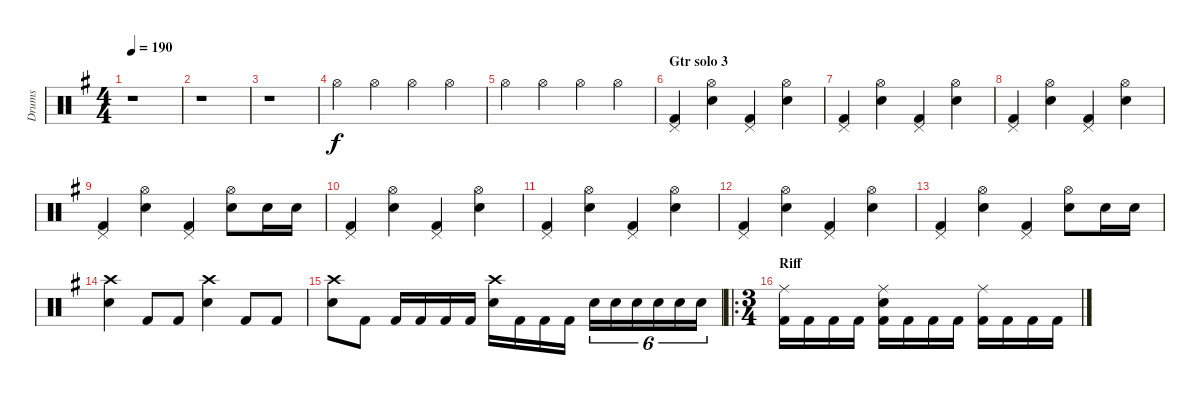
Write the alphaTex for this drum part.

\track ("Drums" "Drums") {instrument percussion}
\staff {score}
\articulation defaults
\ts (4 4)
\tempo 190
\clef neutral
\ks eminor
r.1{dy f} |
r.1 |
r.1 |
"Hi-Hat (open)".4{volume 13} "Hi-Hat (open)".4 "Hi-Hat (open)".4 "Hi-Hat (open)".4 |
"Hi-Hat (open)".4 "Hi-Hat (open)".4 "Hi-Hat (open)".4 "Hi-Hat (open)".4 |
\section ("" "Gtr solo 3")
("Pedal Hi-Hat (hit)" "Kick (hit) 2").4 ("Hi-Hat (open)" "Electric Snare (hit)").4 ("Pedal Hi-Hat (hit)" "Kick (hit) 2").4 ("Hi-Hat (open)" "Electric Snare (hit)").4 |
("Pedal Hi-Hat (hit)" "Kick (hit) 2").4 ("Hi-Hat (open)" "Electric Snare (hit)").4 ("Pedal Hi-Hat (hit)" "Kick (hit) 2").4 ("Hi-Hat (open)" "Electric Snare (hit)").4 |
("Pedal Hi-Hat (hit)" "Kick (hit) 2").4 ("Hi-Hat (open)" "Electric Snare (hit)").4 ("Pedal Hi-Hat (hit)" "Kick (hit) 2").4 ("Hi-Hat (open)" "Electric Snare (hit)").4 |
("Pedal Hi-Hat (hit)" "Kick (hit) 2").4 ("Hi-Hat (open)" "Electric Snare (hit)").4 ("Pedal Hi-Hat (hit)" "Kick (hit) 2").4 ("Hi-Hat (open)" "Electric Snare (hit)").8 "Electric Snare (hit)".16 "Electric Snare (hit)".16 |
("Pedal Hi-Hat (hit)" "Kick (hit) 2").4 ("Hi-Hat (open)" "Electric Snare (hit)").4 ("Pedal Hi-Hat (hit)" "Kick (hit) 2").4 ("Hi-Hat (open)" "Electric Snare (hit)").4 |
("Pedal Hi-Hat (hit)" "Kick (hit) 2").4 ("Hi-Hat (open)" "Electric Snare (hit)").4 ("Pedal Hi-Hat (hit)" "Kick (hit) 2").4 ("Hi-Hat (open)" "Electric Snare (hit)").4 |
("Pedal Hi-Hat (hit)" "Kick (hit) 2").4 ("Hi-Hat (open)" "Electric Snare (hit)").4 ("Pedal Hi-Hat (hit)" "Kick (hit) 2").4 ("Hi-Hat (open)" "Electric Snare (hit)").4 |
("Pedal Hi-Hat (hit)" "Kick (hit) 2").4 ("Hi-Hat (open)" "Electric Snare (hit)").4 ("Pedal Hi-Hat (hit)" "Kick (hit) 2").4 ("Hi-Hat (open)" "Electric Snare (hit)").8 "Electric Snare (hit)".16 "Electric Snare (hit)".16 |
("Crash high (hit)" "Electric Snare (hit)").4 "Kick (hit) 2".8 "Kick (hit) 2".8 ("Crash high (hit)" "Electric Snare (hit)").4 "Kick (hit) 2".8 "Kick (hit) 2".8 |
("Crash high (hit)" "Electric Snare (hit)").8 "Kick (hit) 2".8 "Kick (hit) 2".16 "Kick (hit) 2".16 "Kick (hit) 2".16 "Kick (hit) 2".16 ("Crash high (hit)" "Electric Snare (hit)").16 "Kick (hit) 2".16 "Kick (hit) 2".16 "Kick (hit) 2".16 "Electric Snare (hit)".16{tu (6 4)} "Electric Snare (hit)".16{tu (6 4)} "Electric Snare (hit)".16{tu (6 4)} "Electric Snare (hit)".16{tu (6 4)} "Electric Snare (hit)".16{tu (6 4)} "Electric Snare (hit)".16{tu (6 4)} |
\ro
\ts (3 4)
\section ("" "Riff")
("Ride (middle)" "Kick (hit) 2").16 "Kick (hit) 2".16 "Kick (hit) 2".16 "Kick (hit) 2".16 ("Ride (middle)" "Electric Snare (hit)" "Kick (hit) 2").16 "Kick (hit) 2".16 "Kick (hit) 2".16 "Kick (hit) 2".16 ("Ride (middle)" "Kick (hit) 2").16 "Kick (hit) 2".16 "Kick (hit) 2".16 "Kick (hit) 2".16
